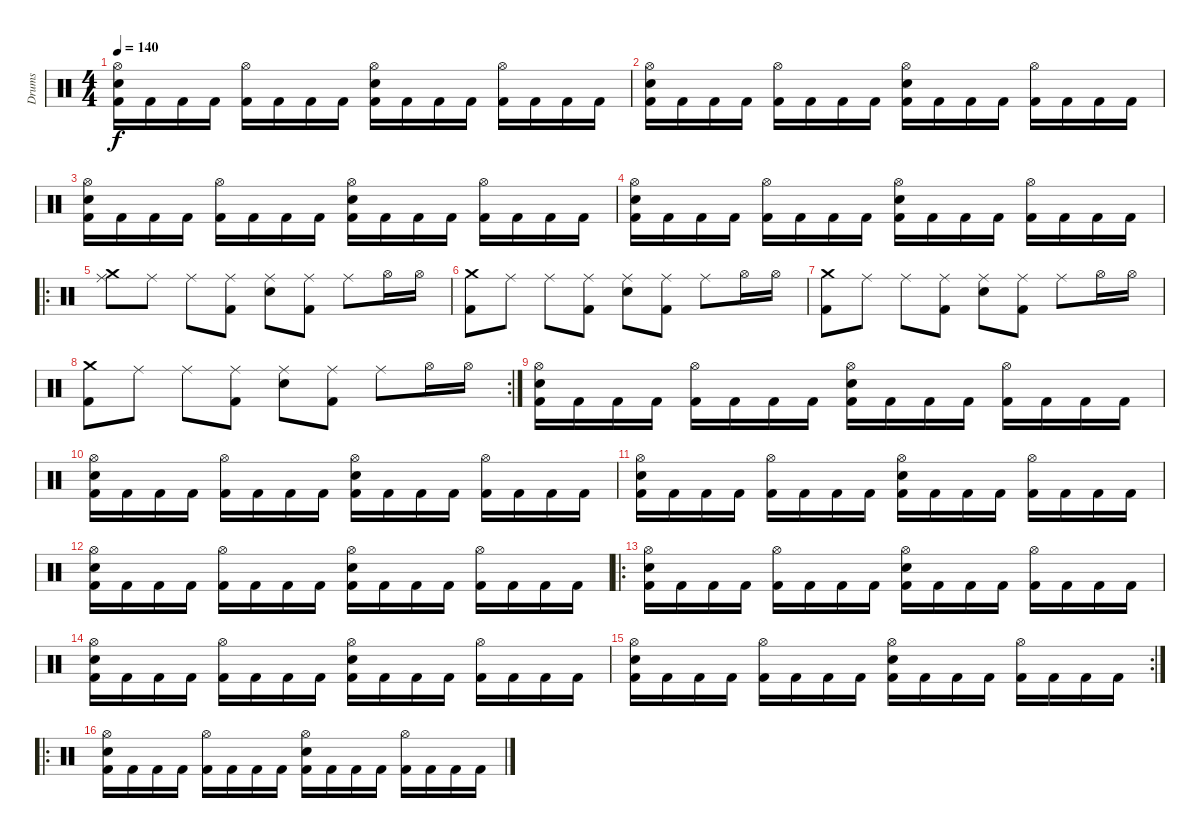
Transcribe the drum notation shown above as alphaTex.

\track ("Drums" "Drums") {instrument percussion}
\staff {score}
\articulation defaults
\ts (4 4)
\tempo 140
\clef neutral
\ks c
("Kick (hit) 2" "Electric Snare (hit)" "Hi-Hat (open)").16{dy f} "Kick (hit) 2".16 "Kick (hit) 2".16 "Kick (hit) 2".16 ("Kick (hit) 2" "Hi-Hat (open)").16 "Kick (hit) 2".16 "Kick (hit) 2".16 "Kick (hit) 2".16 ("Kick (hit) 2" "Electric Snare (hit)" "Hi-Hat (open)").16 "Kick (hit) 2".16 "Kick (hit) 2".16 "Kick (hit) 2".16 ("Kick (hit) 2" "Hi-Hat (open)").16 "Kick (hit) 2".16 "Kick (hit) 2".16 "Kick (hit) 2".16 |
("Kick (hit) 2" "Electric Snare (hit)" "Hi-Hat (open)").16 "Kick (hit) 2".16 "Kick (hit) 2".16 "Kick (hit) 2".16 ("Kick (hit) 2" "Hi-Hat (open)").16 "Kick (hit) 2".16 "Kick (hit) 2".16 "Kick (hit) 2".16 ("Kick (hit) 2" "Electric Snare (hit)" "Hi-Hat (open)").16 "Kick (hit) 2".16 "Kick (hit) 2".16 "Kick (hit) 2".16 ("Kick (hit) 2" "Hi-Hat (open)").16 "Kick (hit) 2".16 "Kick (hit) 2".16 "Kick (hit) 2".16 |
("Kick (hit) 2" "Electric Snare (hit)" "Hi-Hat (open)").16 "Kick (hit) 2".16 "Kick (hit) 2".16 "Kick (hit) 2".16 ("Kick (hit) 2" "Hi-Hat (open)").16 "Kick (hit) 2".16 "Kick (hit) 2".16 "Kick (hit) 2".16 ("Kick (hit) 2" "Electric Snare (hit)" "Hi-Hat (open)").16 "Kick (hit) 2".16 "Kick (hit) 2".16 "Kick (hit) 2".16 ("Kick (hit) 2" "Hi-Hat (open)").16 "Kick (hit) 2".16 "Kick (hit) 2".16 "Kick (hit) 2".16 |
("Kick (hit) 2" "Electric Snare (hit)" "Hi-Hat (open)").16 "Kick (hit) 2".16 "Kick (hit) 2".16 "Kick (hit) 2".16 ("Kick (hit) 2" "Hi-Hat (open)").16 "Kick (hit) 2".16 "Kick (hit) 2".16 "Kick (hit) 2".16 ("Kick (hit) 2" "Electric Snare (hit)" "Hi-Hat (open)").16 "Kick (hit) 2".16 "Kick (hit) 2".16 "Kick (hit) 2".16 ("Kick (hit) 2" "Hi-Hat (open)").16 "Kick (hit) 2".16 "Kick (hit) 2".16 "Kick (hit) 2".16 |
\ro
("Ride (middle)" "Crash medium (hit)").8 "Ride (middle)".8 "Ride (middle)".8 ("Ride (middle)" "Kick (hit) 2").8 ("Ride (middle)" "Electric Snare (hit)").8 ("Ride (middle)" "Kick (hit) 2").8 "Ride (middle)".8 "Hi-Hat (open)".16 "Hi-Hat (open)".16 |
("Kick (hit) 2" "Crash medium (hit)").8 "Ride (middle)".8 "Ride (middle)".8 ("Ride (middle)" "Kick (hit) 2").8 ("Ride (middle)" "Electric Snare (hit)").8 ("Ride (middle)" "Kick (hit) 2").8 "Ride (middle)".8 "Hi-Hat (open)".16 "Hi-Hat (open)".16 |
("Kick (hit) 2" "Crash medium (hit)").8 "Ride (middle)".8 "Ride (middle)".8 ("Ride (middle)" "Kick (hit) 2").8 ("Ride (middle)" "Electric Snare (hit)").8 ("Ride (middle)" "Kick (hit) 2").8 "Ride (middle)".8 "Hi-Hat (open)".16 "Hi-Hat (open)".16 |
\rc 2
("Kick (hit) 2" "Crash medium (hit)").8 "Ride (middle)".8 "Ride (middle)".8 ("Ride (middle)" "Kick (hit) 2").8 ("Ride (middle)" "Electric Snare (hit)").8 ("Ride (middle)" "Kick (hit) 2").8 "Ride (middle)".8 "Hi-Hat (open)".16 "Hi-Hat (open)".16 |
("Kick (hit) 2" "Electric Snare (hit)" "Hi-Hat (open)").16 "Kick (hit) 2".16 "Kick (hit) 2".16 "Kick (hit) 2".16 ("Kick (hit) 2" "Hi-Hat (open)").16 "Kick (hit) 2".16 "Kick (hit) 2".16 "Kick (hit) 2".16 ("Kick (hit) 2" "Electric Snare (hit)" "Hi-Hat (open)").16 "Kick (hit) 2".16 "Kick (hit) 2".16 "Kick (hit) 2".16 ("Kick (hit) 2" "Hi-Hat (open)").16 "Kick (hit) 2".16 "Kick (hit) 2".16 "Kick (hit) 2".16 |
("Kick (hit) 2" "Electric Snare (hit)" "Hi-Hat (open)").16 "Kick (hit) 2".16 "Kick (hit) 2".16 "Kick (hit) 2".16 ("Kick (hit) 2" "Hi-Hat (open)").16 "Kick (hit) 2".16 "Kick (hit) 2".16 "Kick (hit) 2".16 ("Kick (hit) 2" "Electric Snare (hit)" "Hi-Hat (open)").16 "Kick (hit) 2".16 "Kick (hit) 2".16 "Kick (hit) 2".16 ("Kick (hit) 2" "Hi-Hat (open)").16 "Kick (hit) 2".16 "Kick (hit) 2".16 "Kick (hit) 2".16 |
("Kick (hit) 2" "Electric Snare (hit)" "Hi-Hat (open)").16 "Kick (hit) 2".16 "Kick (hit) 2".16 "Kick (hit) 2".16 ("Kick (hit) 2" "Hi-Hat (open)").16 "Kick (hit) 2".16 "Kick (hit) 2".16 "Kick (hit) 2".16 ("Kick (hit) 2" "Electric Snare (hit)" "Hi-Hat (open)").16 "Kick (hit) 2".16 "Kick (hit) 2".16 "Kick (hit) 2".16 ("Kick (hit) 2" "Hi-Hat (open)").16 "Kick (hit) 2".16 "Kick (hit) 2".16 "Kick (hit) 2".16 |
("Kick (hit) 2" "Electric Snare (hit)" "Hi-Hat (open)").16 "Kick (hit) 2".16 "Kick (hit) 2".16 "Kick (hit) 2".16 ("Kick (hit) 2" "Hi-Hat (open)").16 "Kick (hit) 2".16 "Kick (hit) 2".16 "Kick (hit) 2".16 ("Kick (hit) 2" "Electric Snare (hit)" "Hi-Hat (open)").16 "Kick (hit) 2".16 "Kick (hit) 2".16 "Kick (hit) 2".16 ("Kick (hit) 2" "Hi-Hat (open)").16 "Kick (hit) 2".16 "Kick (hit) 2".16 "Kick (hit) 2".16 |
\ro
("Kick (hit) 2" "Electric Snare (hit)" "Hi-Hat (open)").16 "Kick (hit) 2".16 "Kick (hit) 2".16 "Kick (hit) 2".16 ("Kick (hit) 2" "Hi-Hat (open)").16 "Kick (hit) 2".16 "Kick (hit) 2".16 "Kick (hit) 2".16 ("Kick (hit) 2" "Electric Snare (hit)" "Hi-Hat (open)").16 "Kick (hit) 2".16 "Kick (hit) 2".16 "Kick (hit) 2".16 ("Kick (hit) 2" "Hi-Hat (open)").16 "Kick (hit) 2".16 "Kick (hit) 2".16 "Kick (hit) 2".16 |
("Kick (hit) 2" "Electric Snare (hit)" "Hi-Hat (open)").16 "Kick (hit) 2".16 "Kick (hit) 2".16 "Kick (hit) 2".16 ("Kick (hit) 2" "Hi-Hat (open)").16 "Kick (hit) 2".16 "Kick (hit) 2".16 "Kick (hit) 2".16 ("Kick (hit) 2" "Electric Snare (hit)" "Hi-Hat (open)").16 "Kick (hit) 2".16 "Kick (hit) 2".16 "Kick (hit) 2".16 ("Kick (hit) 2" "Hi-Hat (open)").16 "Kick (hit) 2".16 "Kick (hit) 2".16 "Kick (hit) 2".16 |
\rc 2
("Kick (hit) 2" "Electric Snare (hit)" "Hi-Hat (open)").16 "Kick (hit) 2".16 "Kick (hit) 2".16 "Kick (hit) 2".16 ("Kick (hit) 2" "Hi-Hat (open)").16 "Kick (hit) 2".16 "Kick (hit) 2".16 "Kick (hit) 2".16 ("Kick (hit) 2" "Electric Snare (hit)" "Hi-Hat (open)").16 "Kick (hit) 2".16 "Kick (hit) 2".16 "Kick (hit) 2".16 ("Kick (hit) 2" "Hi-Hat (open)").16 "Kick (hit) 2".16 "Kick (hit) 2".16 "Kick (hit) 2".16 |
\ro
("Kick (hit) 2" "Electric Snare (hit)" "Hi-Hat (open)").16 "Kick (hit) 2".16 "Kick (hit) 2".16 "Kick (hit) 2".16 ("Kick (hit) 2" "Hi-Hat (open)").16 "Kick (hit) 2".16 "Kick (hit) 2".16 "Kick (hit) 2".16 ("Kick (hit) 2" "Electric Snare (hit)" "Hi-Hat (open)").16 "Kick (hit) 2".16 "Kick (hit) 2".16 "Kick (hit) 2".16 ("Kick (hit) 2" "Hi-Hat (open)").16 "Kick (hit) 2".16 "Kick (hit) 2".16 "Kick (hit) 2".16
